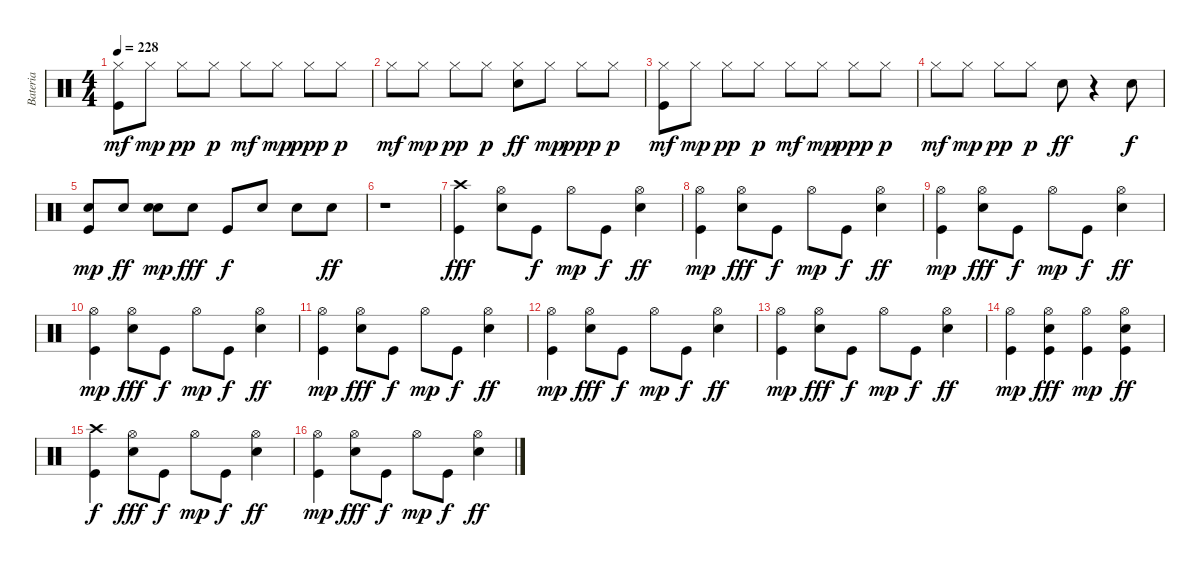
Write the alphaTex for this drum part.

\track ("Bateria" "Bateria") {instrument percussion}
\staff {score}
\articulation defaults
\ts (4 4)
\tempo 228
\clef neutral
\ks c
("Hi-Hat (closed)" "Kick (hit)").8{dy mf} "Hi-Hat (closed)".8{dy mp} "Hi-Hat (closed)".8{dy pp} "Hi-Hat (closed)".8{dy p} "Hi-Hat (closed)".8{dy mf} "Hi-Hat (closed)".8{dy mp} "Hi-Hat (closed)".8{dy ppp} "Hi-Hat (closed)".8{dy p} |
"Hi-Hat (closed)".8{dy mf} "Hi-Hat (closed)".8{dy mp} "Hi-Hat (closed)".8{dy pp} "Hi-Hat (closed)".8{dy p} ("Hi-Hat (closed)" "Electric Snare (hit)").8{dy ff} "Hi-Hat (closed)".8{dy mp} "Hi-Hat (closed)".8{dy ppp} "Hi-Hat (closed)".8{dy p} |
("Hi-Hat (closed)" "Kick (hit)").8{dy mf} "Hi-Hat (closed)".8{dy mp} "Hi-Hat (closed)".8{dy pp} "Hi-Hat (closed)".8{dy p} "Hi-Hat (closed)".8{dy mf} "Hi-Hat (closed)".8{dy mp} "Hi-Hat (closed)".8{dy ppp} "Hi-Hat (closed)".8{dy p} |
"Hi-Hat (closed)".8{dy mf} "Hi-Hat (closed)".8{dy mp} "Hi-Hat (closed)".8{dy pp} "Hi-Hat (closed)".8{dy p} "Electric Snare (hit)".8{dy ff} r.4 "Electric Snare (hit)".8{dy f} |
("Kick (hit)" "Electric Snare (hit)").8{dy mp} "Electric Snare (hit)".8{dy ff} ("Electric Snare (hit)" "Electric Snare (hit)").8{dy mp} "Electric Snare (hit)".8{dy fff} "Kick (hit)".8{dy f} "Electric Snare (hit)".8 "Electric Snare (hit)".8 "Electric Snare (hit)".8{dy ff} |
r.1 |
("Crash high (hit)" "Kick (hit)").4{dy fff} ("Hi-Hat (open)" "Electric Snare (hit)").8 "Kick (hit)".8{dy f} "Hi-Hat (open)".8{dy mp} "Kick (hit)".8{dy f} ("Hi-Hat (open)" "Electric Snare (hit)").4{dy ff} |
("Hi-Hat (open)" "Kick (hit)").4{dy mp} ("Hi-Hat (open)" "Electric Snare (hit)").8{dy fff} "Kick (hit)".8{dy f} "Hi-Hat (open)".8{dy mp} "Kick (hit)".8{dy f} ("Hi-Hat (open)" "Electric Snare (hit)").4{dy ff} |
("Hi-Hat (open)" "Kick (hit)").4{dy mp} ("Hi-Hat (open)" "Electric Snare (hit)").8{dy fff} "Kick (hit)".8{dy f} "Hi-Hat (open)".8{dy mp} "Kick (hit)".8{dy f} ("Hi-Hat (open)" "Electric Snare (hit)").4{dy ff} |
("Hi-Hat (open)" "Kick (hit)").4{dy mp} ("Hi-Hat (open)" "Electric Snare (hit)").8{dy fff} "Kick (hit)".8{dy f} "Hi-Hat (open)".8{dy mp} "Kick (hit)".8{dy f} ("Hi-Hat (open)" "Electric Snare (hit)").4{dy ff} |
("Hi-Hat (open)" "Kick (hit)").4{dy mp} ("Hi-Hat (open)" "Electric Snare (hit)").8{dy fff} "Kick (hit)".8{dy f} "Hi-Hat (open)".8{dy mp} "Kick (hit)".8{dy f} ("Hi-Hat (open)" "Electric Snare (hit)").4{dy ff} |
("Hi-Hat (open)" "Kick (hit)").4{dy mp} ("Hi-Hat (open)" "Electric Snare (hit)").8{dy fff} "Kick (hit)".8{dy f} "Hi-Hat (open)".8{dy mp} "Kick (hit)".8{dy f} ("Hi-Hat (open)" "Electric Snare (hit)").4{dy ff} |
("Hi-Hat (open)" "Kick (hit)").4{dy mp} ("Hi-Hat (open)" "Electric Snare (hit)").8{dy fff} "Kick (hit)".8{dy f} "Hi-Hat (open)".8{dy mp} "Kick (hit)".8{dy f} ("Hi-Hat (open)" "Electric Snare (hit)").4{dy ff} |
("Hi-Hat (open)" "Kick (hit)").4{dy mp} ("Hi-Hat (open)" "Kick (hit)" "Electric Snare (hit)").4{dy fff} ("Hi-Hat (open)" "Kick (hit)").4{dy mp} ("Hi-Hat (open)" "Kick (hit)" "Electric Snare (hit)").4{dy ff} |
("Crash high (hit)" "Kick (hit)").4{dy f} ("Hi-Hat (open)" "Electric Snare (hit)").8{dy fff} "Kick (hit)".8{dy f} "Hi-Hat (open)".8{dy mp} "Kick (hit)".8{dy f} ("Hi-Hat (open)" "Electric Snare (hit)").4{dy ff} |
("Hi-Hat (open)" "Kick (hit)").4{dy mp} ("Hi-Hat (open)" "Electric Snare (hit)").8{dy fff} "Kick (hit)".8{dy f} "Hi-Hat (open)".8{dy mp} "Kick (hit)".8{dy f} ("Hi-Hat (open)" "Electric Snare (hit)").4{dy ff}
